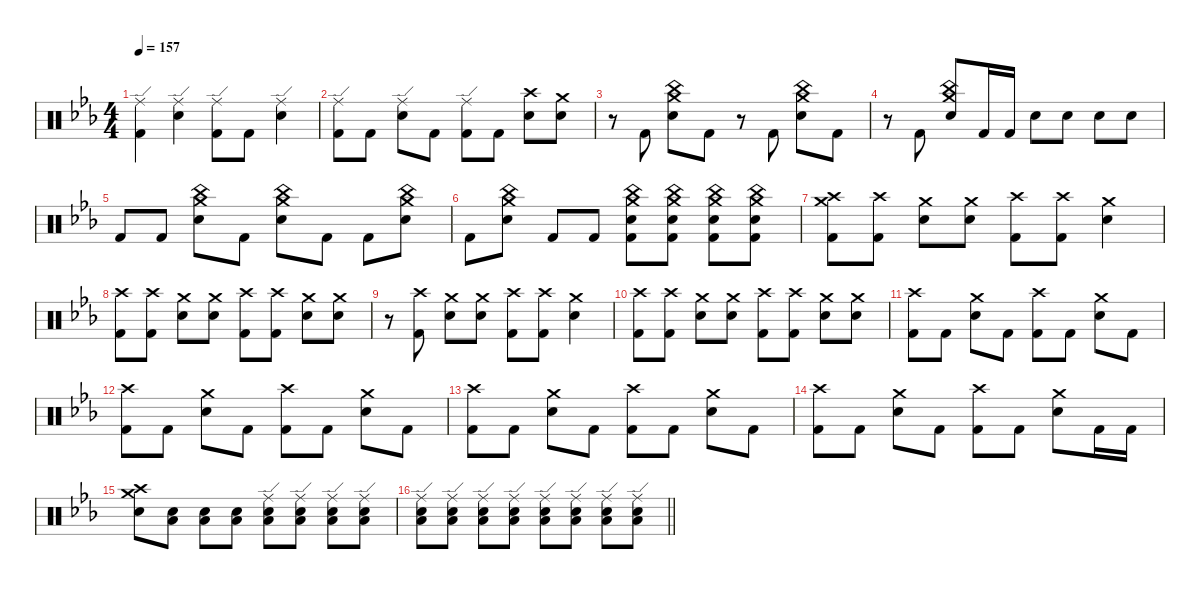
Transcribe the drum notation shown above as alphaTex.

\defaultSystemsLayout 4
\hideDynamics
\bracketExtendMode nobrackets
\singleTrackTrackNamePolicy hidden
\multiTrackTrackNamePolicy hidden
\firstSystemTrackNameMode fullname
\otherSystemsTrackNameOrientation horizontal
\track ("Drums" "drm.") {instrument percussion}
\staff {score}
\articulation defaults
\ts (4 4)
\tempo 157
\clef neutral
\ks cminor
("Ride (edge)"{acc forcenatural} "Kick (hit) 2"{acc forcenatural}).4{dy f beam Down} ("Ride (edge)"{acc forcenatural} "Snare (hit) 2"{acc forcenatural}).4{beam Down} ("Ride (edge)"{acc forcenatural} "Kick (hit) 2"{acc forcenatural}).8{beam Down} "Kick (hit) 2"{acc forcenatural}.8{beam Down} ("Ride (edge)"{acc forcenatural} "Snare (hit) 2"{acc forcenatural}).4{beam Down} |
("Ride (edge)"{acc forcenatural} "Kick (hit) 2"{acc forcenatural}).8{beam Down} "Kick (hit) 2"{acc forcenatural}.8{beam Down} ("Ride (edge)"{acc forcenatural} "Snare (hit) 2"{acc forcenatural}).8{beam Down} "Kick (hit) 2"{acc forcenatural}.8{beam Down} ("Ride (edge)"{acc forcenatural} "Kick (hit) 2"{acc forcenatural}).8{beam Down} "Kick (hit) 2"{acc forcenatural}.8{beam Down} ("Crash high (hit)"{acc forcenatural} "Snare (hit) 2"{acc forcenatural}).8{beam Down} ("Crash medium (hit)"{acc forcenatural} "Snare (hit) 2"{acc forcenatural}).8{beam Down} |
r.8{beam Down} "Kick (hit) 2"{acc forcenatural}.8{beam Up} ("China (hit)"{acc forcenatural} "Crash medium (hit)"{acc forcenatural} "Snare (hit) 2"{acc forcenatural}).8{dy mp beam Down} "Kick (hit) 2"{acc forcenatural}.8{dy f beam Down} r.8{beam Down} "Kick (hit) 2"{acc forcenatural}.8{beam Up} ("China (hit)"{acc forcenatural} "Crash medium (hit)"{acc forcenatural} "Snare (hit) 2"{acc forcenatural}).8{dy mp beam Down} "Kick (hit) 2"{acc forcenatural}.8{dy f beam Down} |
r.8{beam Down} "Kick (hit) 2"{acc forcenatural}.8{beam Up} ("China (hit)"{acc forcenatural} "Crash medium (hit)"{acc forcenatural} "Snare (hit) 2"{acc forcenatural}).8{dy mp beam Up} "Kick (hit) 2"{acc forcenatural}.16{dy f beam Up} "Kick (hit) 2"{acc forcenatural}.16{beam Up} "Snare (hit) 2"{acc forcenatural}.8{beam Down} "Snare (hit) 2"{acc forcenatural}.8{beam Down} "Snare (hit) 2"{acc forcenatural}.8{beam Down} "Snare (hit) 2"{acc forcenatural}.8{beam Down} |
"Kick (hit) 2"{acc forcenatural}.8{beam Up} "Kick (hit) 2"{acc forcenatural}.8{beam Up} ("China (hit)"{acc forcenatural} "Crash medium (hit)"{acc forcenatural} "Snare (hit) 2"{acc forcenatural}).8{dy mp beam Down} "Kick (hit) 2"{acc forcenatural}.8{dy f beam Down} ("China (hit)"{acc forcenatural} "Crash medium (hit)"{acc forcenatural} "Snare (hit) 2"{acc forcenatural}).8{dy mp beam Down} "Kick (hit) 2"{acc forcenatural}.8{dy f beam Down} "Kick (hit) 2"{acc forcenatural}.8{beam Down} ("China (hit)"{acc forcenatural} "Crash medium (hit)"{acc forcenatural} "Snare (hit) 2"{acc forcenatural}).8{dy mp beam Down} |
"Kick (hit) 2"{acc forcenatural}.8{dy f beam Down} ("China (hit)"{acc forcenatural} "Crash medium (hit)"{acc forcenatural} "Snare (hit) 2"{acc forcenatural}).8{dy mp beam Down} "Kick (hit) 2"{acc forcenatural}.8{dy f beam Up} "Kick (hit) 2"{acc forcenatural}.8{beam Up} ("China (hit)"{acc forcenatural} "Crash medium (hit)"{acc forcenatural} "Snare (hit) 2"{acc forcenatural} "Kick (hit) 2"{acc forcenatural}).8{dy mp beam Down} ("China (hit)"{acc forcenatural} "Crash medium (hit)"{acc forcenatural} "Snare (hit) 2"{acc forcenatural} "Kick (hit) 2"{acc forcenatural}).8{beam Down} ("China (hit)"{acc forcenatural} "Crash medium (hit)"{acc forcenatural} "Snare (hit) 2"{acc forcenatural} "Kick (hit) 2"{acc forcenatural}).8{beam Down} ("China (hit)"{acc forcenatural} "Crash medium (hit)"{acc forcenatural} "Snare (hit) 2"{acc forcenatural} "Kick (hit) 2"{acc forcenatural}).8{beam Down} |
("Crash high (hit)"{acc forcenatural} "Crash medium (hit)"{acc forcenatural} "Kick (hit) 2"{acc forcenatural}).8{dy f beam Down} ("Crash high (hit)"{acc forcenatural} "Kick (hit) 2"{acc forcenatural}).8{beam Down} ("Crash medium (hit)"{acc forcenatural} "Snare (hit) 2"{acc forcenatural}).8{beam Down} ("Crash medium (hit)"{acc forcenatural} "Snare (hit) 2"{acc forcenatural}).8{beam Down} ("Crash high (hit)"{acc forcenatural} "Kick (hit) 2"{acc forcenatural}).8{dy p beam Down} ("Crash high (hit)"{acc forcenatural} "Kick (hit) 2"{acc forcenatural}).8{beam Down} ("Crash medium (hit)"{acc forcenatural} "Snare (hit) 2"{acc forcenatural}).4{dy f beam Down} |
("Crash high (hit)"{acc forcenatural} "Kick (hit) 2"{acc forcenatural}).8{dy p beam Down} ("Crash high (hit)"{acc forcenatural} "Kick (hit) 2"{acc forcenatural}).8{beam Down} ("Crash medium (hit)"{acc forcenatural} "Snare (hit) 2"{acc forcenatural}).8{dy f beam Down} ("Crash medium (hit)"{acc forcenatural} "Snare (hit) 2"{acc forcenatural}).8{beam Down} ("Crash high (hit)"{acc forcenatural} "Kick (hit) 2"{acc forcenatural}).8{dy p beam Down} ("Crash high (hit)"{acc forcenatural} "Kick (hit) 2"{acc forcenatural}).8{beam Down} ("Crash medium (hit)"{acc forcenatural} "Snare (hit) 2"{acc forcenatural}).8{dy f beam Down} ("Crash medium (hit)"{acc forcenatural} "Snare (hit) 2"{acc forcenatural}).8{beam Down} |
r.8{beam Down} ("Crash high (hit)"{acc forcenatural} "Kick (hit) 2"{acc forcenatural}).8{dy p beam Down} ("Crash medium (hit)"{acc forcenatural} "Snare (hit) 2"{acc forcenatural}).8{dy f beam Down} ("Crash medium (hit)"{acc forcenatural} "Snare (hit) 2"{acc forcenatural}).8{beam Down} ("Crash high (hit)"{acc forcenatural} "Kick (hit) 2"{acc forcenatural}).8{dy p beam Down} ("Crash high (hit)"{acc forcenatural} "Kick (hit) 2"{acc forcenatural}).8{beam Down} ("Crash medium (hit)"{acc forcenatural} "Snare (hit) 2"{acc forcenatural}).4{dy f beam Down} |
("Crash high (hit)"{acc forcenatural} "Kick (hit) 2"{acc forcenatural}).8{dy p beam Down} ("Crash high (hit)"{acc forcenatural} "Kick (hit) 2"{acc forcenatural}).8{beam Down} ("Crash medium (hit)"{acc forcenatural} "Snare (hit) 2"{acc forcenatural}).8{dy f beam Down} ("Crash medium (hit)"{acc forcenatural} "Snare (hit) 2"{acc forcenatural}).8{beam Down} ("Crash high (hit)"{acc forcenatural} "Kick (hit) 2"{acc forcenatural}).8{dy p beam Down} ("Crash high (hit)"{acc forcenatural} "Kick (hit) 2"{acc forcenatural}).8{beam Down} ("Crash medium (hit)"{acc forcenatural} "Snare (hit) 2"{acc forcenatural}).8{dy f beam Down} ("Crash medium (hit)"{acc forcenatural} "Snare (hit) 2"{acc forcenatural}).8{beam Down} |
("Crash high (hit)"{acc forcenatural} "Kick (hit) 2"{acc forcenatural}).8{dy mp beam Down} "Kick (hit) 2"{acc forcenatural}.8{dy f beam Down} ("Crash medium (hit)"{acc forcenatural} "Snare (hit) 2"{acc forcenatural}).8{beam Down} "Kick (hit) 2"{acc forcenatural}.8{beam Down} ("Crash high (hit)"{acc forcenatural} "Kick (hit) 2"{acc forcenatural}).8{dy p beam Down} "Kick (hit) 2"{acc forcenatural}.8{dy f beam Down} ("Crash medium (hit)"{acc forcenatural} "Snare (hit) 2"{acc forcenatural}).8{beam Down} "Kick (hit) 2"{acc forcenatural}.8{beam Down} |
("Crash high (hit)"{acc forcenatural} "Kick (hit) 2"{acc forcenatural}).8{dy mp beam Down} "Kick (hit) 2"{acc forcenatural}.8{dy f beam Down} ("Crash medium (hit)"{acc forcenatural} "Snare (hit) 2"{acc forcenatural}).8{beam Down} "Kick (hit) 2"{acc forcenatural}.8{beam Down} ("Crash high (hit)"{acc forcenatural} "Kick (hit) 2"{acc forcenatural}).8{dy p beam Down} "Kick (hit) 2"{acc forcenatural}.8{dy f beam Down} ("Crash medium (hit)"{acc forcenatural} "Snare (hit) 2"{acc forcenatural}).8{beam Down} "Kick (hit) 2"{acc forcenatural}.8{beam Down} |
("Crash high (hit)"{acc forcenatural} "Kick (hit) 2"{acc forcenatural}).8{dy mp beam Down} "Kick (hit) 2"{acc forcenatural}.8{dy f beam Down} ("Crash medium (hit)"{acc forcenatural} "Snare (hit) 2"{acc forcenatural}).8{beam Down} "Kick (hit) 2"{acc forcenatural}.8{beam Down} ("Crash high (hit)"{acc forcenatural} "Kick (hit) 2"{acc forcenatural}).8{dy p beam Down} "Kick (hit) 2"{acc forcenatural}.8{dy f beam Down} ("Crash medium (hit)"{acc forcenatural} "Snare (hit) 2"{acc forcenatural}).8{beam Down} "Kick (hit) 2"{acc forcenatural}.8{beam Down} |
("Crash high (hit)"{acc forcenatural} "Kick (hit) 2"{acc forcenatural}).8{dy mp beam Down} "Kick (hit) 2"{acc forcenatural}.8{dy f beam Down} ("Crash medium (hit)"{acc forcenatural} "Snare (hit) 2"{acc forcenatural}).8{beam Down} "Kick (hit) 2"{acc forcenatural}.8{beam Down} ("Crash high (hit)"{acc forcenatural} "Kick (hit) 2"{acc forcenatural}).8{dy p beam Down} "Kick (hit) 2"{acc forcenatural}.8{dy f beam Down} ("Crash medium (hit)"{acc forcenatural} "Snare (hit) 2"{acc forcenatural}).8{beam Down} "Kick (hit) 2"{acc forcenatural}.16{beam Down} "Kick (hit) 2"{acc forcenatural}.16{beam Down} |
("Crash medium (hit)"{acc forcenatural} "Crash high (hit)"{acc forcenatural} "Snare (hit) 2"{acc forcenatural}).8{beam Down} ("Low Floor Tom (hit)"{acc forcenatural} "Snare (hit) 2"{acc forcenatural}).8{dy ppp beam Down} ("Low Floor Tom (hit)"{acc forcenatural} "Snare (hit) 2"{acc forcenatural}).8{beam Down} ("Low Floor Tom (hit)"{acc forcenatural} "Snare (hit) 2"{acc forcenatural}).8{dy pp beam Down} ("Ride (edge)"{acc forcenatural} "Low Floor Tom (hit)"{acc forcenatural} "Snare (hit) 2"{acc forcenatural}).8{dy ppp beam Down} ("Ride (edge)"{acc forcenatural} "Low Floor Tom (hit)"{acc forcenatural} "Snare (hit) 2"{acc forcenatural}).8{beam Down} ("Ride (edge)"{acc forcenatural} "Low Floor Tom (hit)"{acc forcenatural} "Snare (hit) 2"{acc forcenatural}).8{dy pp beam Down} ("Ride (edge)"{acc forcenatural} "Low Floor Tom (hit)"{acc forcenatural} "Snare (hit) 2"{acc forcenatural}).8{beam Down} |
\barLineRight lightlight
("Ride (edge)"{acc forcenatural} "Low Floor Tom (hit)"{acc forcenatural} "Snare (hit) 2"{acc forcenatural}).8{dy p beam Down} ("Ride (edge)"{acc forcenatural} "Low Floor Tom (hit)"{acc forcenatural} "Snare (hit) 2"{acc forcenatural}).8{beam Down} ("Ride (edge)"{acc forcenatural} "Low Floor Tom (hit)"{acc forcenatural} "Snare (hit) 2"{acc forcenatural}).8{dy mp beam Down} ("Ride (edge)"{acc forcenatural} "Low Floor Tom (hit)"{acc forcenatural} "Snare (hit) 2"{acc forcenatural}).8{beam Down} ("Ride (edge)"{acc forcenatural} "Low Floor Tom (hit)"{acc forcenatural} "Snare (hit) 2"{acc forcenatural}).8{dy mf beam Down} ("Ride (edge)"{acc forcenatural} "Low Floor Tom (hit)"{acc forcenatural} "Snare (hit) 2"{acc forcenatural}).8{beam Down} ("Ride (edge)"{acc forcenatural} "Low Floor Tom (hit)"{acc forcenatural} "Snare (hit) 2"{acc forcenatural}).8{dy f beam Down} ("Ride (edge)"{acc forcenatural} "Low Floor Tom (hit)"{acc forcenatural} "Snare (hit) 2"{acc forcenatural}).8{beam Down}
